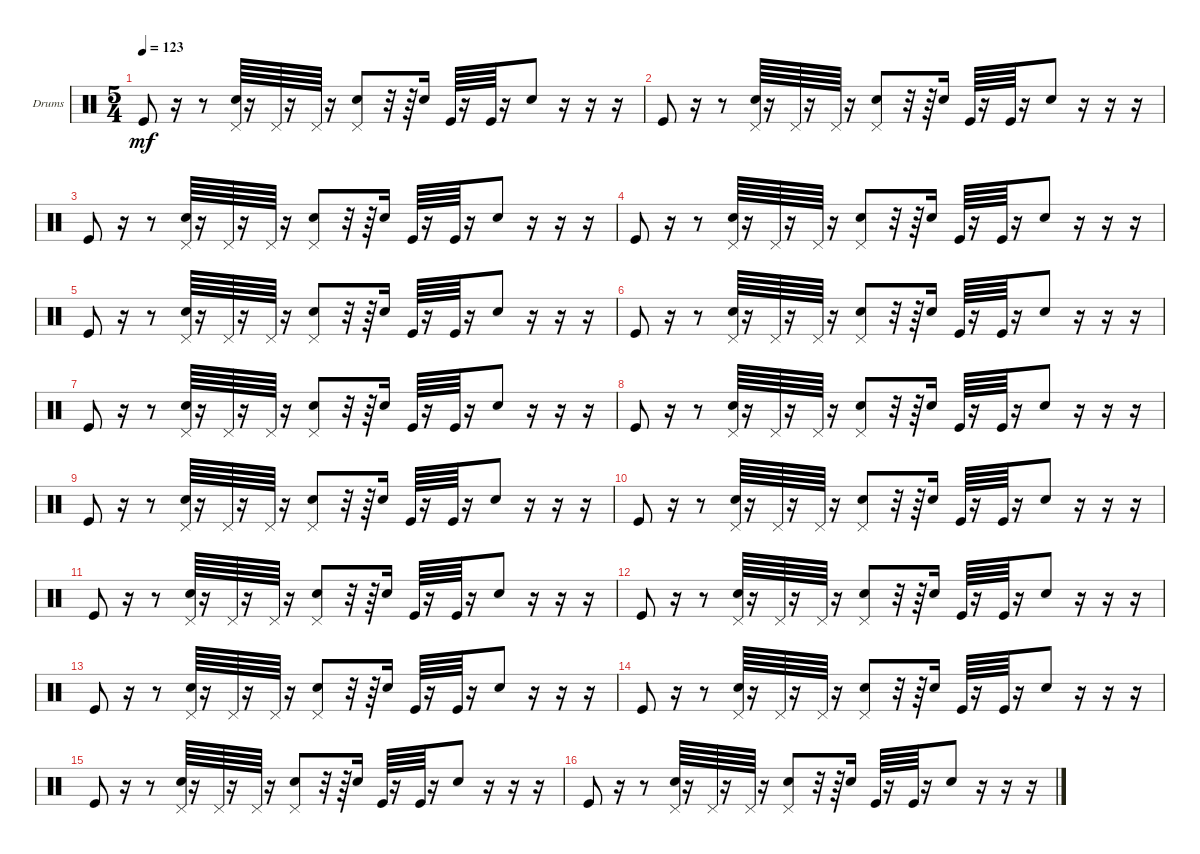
\defaultSystemsLayout 4
\bracketExtendMode groupsimilarinstruments
\firstSystemTrackNameOrientation horizontal
\otherSystemsTrackNameOrientation horizontal
\track ("Drumkit" "Drums") {instrument percussion}
\staff {score}
\articulation defaults
\ts (5 4)
\tempo 123
\clef neutral
\ks c "Kick (hit)".8{dy mf}
r.16 r.8 ("Pedal Hi-Hat (hit)" "Snare (hit) 2").64 r.16 "Pedal Hi-Hat (hit)".64 r.16 "Pedal Hi-Hat (hit)".64 r.16 ("Pedal Hi-Hat (hit)" "Snare (hit) 2").8 r.32 r.64 "Snare (hit) 2".16 "Kick (hit)".64 r.16 "Kick (hit)".64 r.16 "Snare (hit) 2".8 r.16 r.16 r.16 |
"Kick (hit)".8 r.16 r.8 ("Pedal Hi-Hat (hit)" "Snare (hit) 2").64 r.16 "Pedal Hi-Hat (hit)".64 r.16 "Pedal Hi-Hat (hit)".64 r.16 ("Pedal Hi-Hat (hit)" "Snare (hit) 2").8 r.32 r.64 "Snare (hit) 2".16 "Kick (hit)".64 r.16 "Kick (hit)".64 r.16 "Snare (hit) 2".8 r.16 r.16 r.16 |
"Kick (hit)".8 r.16 r.8 ("Pedal Hi-Hat (hit)" "Snare (hit) 2").64 r.16 "Pedal Hi-Hat (hit)".64 r.16 "Pedal Hi-Hat (hit)".64 r.16 ("Pedal Hi-Hat (hit)" "Snare (hit) 2").8 r.32 r.64 "Snare (hit) 2".16 "Kick (hit)".64 r.16 "Kick (hit)".64 r.16 "Snare (hit) 2".8 r.16 r.16 r.16 |
"Kick (hit)".8 r.16 r.8 ("Pedal Hi-Hat (hit)" "Snare (hit) 2").64 r.16 "Pedal Hi-Hat (hit)".64 r.16 "Pedal Hi-Hat (hit)".64 r.16 ("Pedal Hi-Hat (hit)" "Snare (hit) 2").8 r.32 r.64 "Snare (hit) 2".16 "Kick (hit)".64 r.16 "Kick (hit)".64 r.16 "Snare (hit) 2".8 r.16 r.16 r.16 |
"Kick (hit)".8 r.16 r.8 ("Pedal Hi-Hat (hit)" "Snare (hit) 2").64 r.16 "Pedal Hi-Hat (hit)".64 r.16 "Pedal Hi-Hat (hit)".64 r.16 ("Pedal Hi-Hat (hit)" "Snare (hit) 2").8 r.32 r.64 "Snare (hit) 2".16 "Kick (hit)".64 r.16 "Kick (hit)".64 r.16 "Snare (hit) 2".8 r.16 r.16 r.16 |
"Kick (hit)".8 r.16 r.8 ("Pedal Hi-Hat (hit)" "Snare (hit) 2").64 r.16 "Pedal Hi-Hat (hit)".64 r.16 "Pedal Hi-Hat (hit)".64 r.16 ("Pedal Hi-Hat (hit)" "Snare (hit) 2").8 r.32 r.64 "Snare (hit) 2".16 "Kick (hit)".64 r.16 "Kick (hit)".64 r.16 "Snare (hit) 2".8 r.16 r.16 r.16 |
"Kick (hit)".8 r.16 r.8 ("Pedal Hi-Hat (hit)" "Snare (hit) 2").64 r.16 "Pedal Hi-Hat (hit)".64 r.16 "Pedal Hi-Hat (hit)".64 r.16 ("Pedal Hi-Hat (hit)" "Snare (hit) 2").8 r.32 r.64 "Snare (hit) 2".16 "Kick (hit)".64 r.16 "Kick (hit)".64 r.16 "Snare (hit) 2".8 r.16 r.16 r.16 |
"Kick (hit)".8 r.16 r.8 ("Pedal Hi-Hat (hit)" "Snare (hit) 2").64 r.16 "Pedal Hi-Hat (hit)".64 r.16 "Pedal Hi-Hat (hit)".64 r.16 ("Pedal Hi-Hat (hit)" "Snare (hit) 2").8 r.32 r.64 "Snare (hit) 2".16 "Kick (hit)".64 r.16 "Kick (hit)".64 r.16 "Snare (hit) 2".8 r.16 r.16 r.16 |
"Kick (hit)".8 r.16 r.8 ("Pedal Hi-Hat (hit)" "Snare (hit) 2").64 r.16 "Pedal Hi-Hat (hit)".64 r.16 "Pedal Hi-Hat (hit)".64 r.16 ("Pedal Hi-Hat (hit)" "Snare (hit) 2").8 r.32 r.64 "Snare (hit) 2".16 "Kick (hit)".64 r.16 "Kick (hit)".64 r.16 "Snare (hit) 2".8 r.16 r.16 r.16 |
"Kick (hit)".8 r.16 r.8 ("Pedal Hi-Hat (hit)" "Snare (hit) 2").64 r.16 "Pedal Hi-Hat (hit)".64 r.16 "Pedal Hi-Hat (hit)".64 r.16 ("Pedal Hi-Hat (hit)" "Snare (hit) 2").8 r.32 r.64 "Snare (hit) 2".16 "Kick (hit)".64 r.16 "Kick (hit)".64 r.16 "Snare (hit) 2".8 r.16 r.16 r.16 |
"Kick (hit)".8 r.16 r.8 ("Pedal Hi-Hat (hit)" "Snare (hit) 2").64 r.16 "Pedal Hi-Hat (hit)".64 r.16 "Pedal Hi-Hat (hit)".64 r.16 ("Pedal Hi-Hat (hit)" "Snare (hit) 2").8 r.32 r.64 "Snare (hit) 2".16 "Kick (hit)".64 r.16 "Kick (hit)".64 r.16 "Snare (hit) 2".8 r.16 r.16 r.16 |
"Kick (hit)".8 r.16 r.8 ("Pedal Hi-Hat (hit)" "Snare (hit) 2").64 r.16 "Pedal Hi-Hat (hit)".64 r.16 "Pedal Hi-Hat (hit)".64 r.16 ("Pedal Hi-Hat (hit)" "Snare (hit) 2").8 r.32 r.64 "Snare (hit) 2".16 "Kick (hit)".64 r.16 "Kick (hit)".64 r.16 "Snare (hit) 2".8 r.16 r.16 r.16 |
"Kick (hit)".8 r.16 r.8 ("Pedal Hi-Hat (hit)" "Snare (hit) 2").64 r.16 "Pedal Hi-Hat (hit)".64 r.16 "Pedal Hi-Hat (hit)".64 r.16 ("Pedal Hi-Hat (hit)" "Snare (hit) 2").8 r.32 r.64 "Snare (hit) 2".16 "Kick (hit)".64 r.16 "Kick (hit)".64 r.16 "Snare (hit) 2".8 r.16 r.16 r.16 |
"Kick (hit)".8 r.16 r.8 ("Pedal Hi-Hat (hit)" "Snare (hit) 2").64 r.16 "Pedal Hi-Hat (hit)".64 r.16 "Pedal Hi-Hat (hit)".64 r.16 ("Pedal Hi-Hat (hit)" "Snare (hit) 2").8 r.32 r.64 "Snare (hit) 2".16 "Kick (hit)".64 r.16 "Kick (hit)".64 r.16 "Snare (hit) 2".8 r.16 r.16 r.16 |
"Kick (hit)".8 r.16 r.8 ("Pedal Hi-Hat (hit)" "Snare (hit) 2").64 r.16 "Pedal Hi-Hat (hit)".64 r.16 "Pedal Hi-Hat (hit)".64 r.16 ("Pedal Hi-Hat (hit)" "Snare (hit) 2").8 r.32 r.64 "Snare (hit) 2".16 "Kick (hit)".64 r.16 "Kick (hit)".64 r.16 "Snare (hit) 2".8 r.16 r.16 r.16 |
"Kick (hit)".8 r.16 r.8 ("Pedal Hi-Hat (hit)" "Snare (hit) 2").64 r.16 "Pedal Hi-Hat (hit)".64 r.16 "Pedal Hi-Hat (hit)".64 r.16 ("Pedal Hi-Hat (hit)" "Snare (hit) 2").8 r.32 r.64 "Snare (hit) 2".16 "Kick (hit)".64 r.16 "Kick (hit)".64 r.16 "Snare (hit) 2".8 r.16 r.16 r.16
